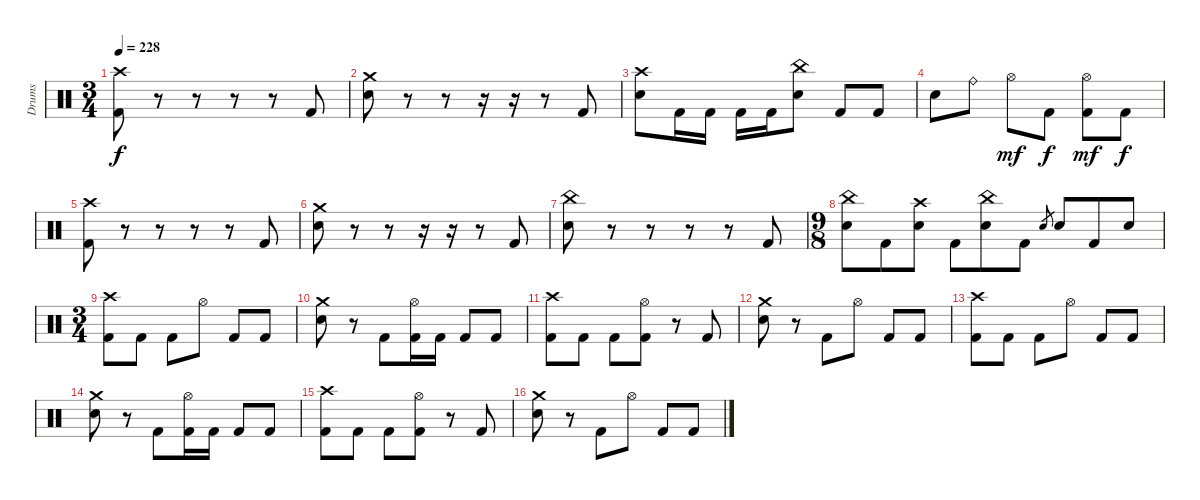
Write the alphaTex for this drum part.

\track ("Drums" "Drums") {instrument percussion}
\staff {score}
\articulation defaults
\ts (3 4)
\tempo 228
\clef neutral
\ks c
("Crash high (hit)" "Kick (hit) 2").8{dy f} r.8 r.8 r.8 r.8 "Kick (hit) 2".8 |
("Crash medium (hit)" "Electric Snare (hit)").8 r.8 r.8 r.16 r.16 r.8 "Kick (hit) 2".8 |
("Crash high (hit)" "Electric Snare (hit)").8 "Kick (hit) 2".16 "Kick (hit) 2".16 "Kick (hit) 2".16 "Kick (hit) 2".16 ("China (hit)" "Electric Snare (hit)").8 "Kick (hit) 2".8 "Kick (hit) 2".8 |
"Electric Snare (hit)".8 "Ride (bell)".8 "Hi-Hat (open)".8{dy mf} "Kick (hit) 2".8{dy f} ("Hi-Hat (open)" "Kick (hit) 2").8{dy mf} "Kick (hit) 2".8{dy f} |
("Crash high (hit)" "Kick (hit) 2").8 r.8 r.8 r.8 r.8 "Kick (hit) 2".8 |
("Crash medium (hit)" "Electric Snare (hit)").8 r.8 r.8 r.16 r.16 r.8 "Kick (hit) 2".8 |
("China (hit)" "Electric Snare (hit)").8 r.8 r.8 r.8 r.8 "Kick (hit) 2".8 |
\ts (9 8)
("China (hit)" "Electric Snare (hit)").8 "Kick (hit) 2".8 ("Crash high (hit)" "Electric Snare (hit)").8 "Kick (hit) 2".8 ("China (hit)" "Electric Snare (hit)").8 "Kick (hit) 2".8 "Electric Snare (hit)".8{gr} "Electric Snare (hit)".8 "Kick (hit) 2".8 "Electric Snare (hit)".8 |
\ts (3 4)
("Crash high (hit)" "Kick (hit) 2").8 "Kick (hit) 2".8 "Kick (hit) 2".8 "Hi-Hat (open)".8 "Kick (hit) 2".8 "Kick (hit) 2".8 |
("Crash medium (hit)" "Electric Snare (hit)").8 r.8 "Kick (hit) 2".8 ("Hi-Hat (open)" "Kick (hit) 2").16 "Kick (hit) 2".16 "Kick (hit) 2".8 "Kick (hit) 2".8 |
("Crash high (hit)" "Kick (hit) 2").8 "Kick (hit) 2".8 "Kick (hit) 2".8 ("Hi-Hat (open)" "Kick (hit) 2").8 r.8 "Kick (hit) 2".8 |
("Crash medium (hit)" "Electric Snare (hit)").8 r.8 "Kick (hit) 2".8 "Hi-Hat (open)".8 "Kick (hit) 2".8 "Kick (hit) 2".8 |
("Crash high (hit)" "Kick (hit) 2").8 "Kick (hit) 2".8 "Kick (hit) 2".8 "Hi-Hat (open)".8 "Kick (hit) 2".8 "Kick (hit) 2".8 |
("Crash medium (hit)" "Electric Snare (hit)").8 r.8 "Kick (hit) 2".8 ("Hi-Hat (open)" "Kick (hit) 2").16 "Kick (hit) 2".16 "Kick (hit) 2".8 "Kick (hit) 2".8 |
("Crash high (hit)" "Kick (hit) 2").8 "Kick (hit) 2".8 "Kick (hit) 2".8 ("Hi-Hat (open)" "Kick (hit) 2").8 r.8 "Kick (hit) 2".8 |
("Crash medium (hit)" "Electric Snare (hit)").8 r.8 "Kick (hit) 2".8 "Hi-Hat (open)".8 "Kick (hit) 2".8 "Kick (hit) 2".8
